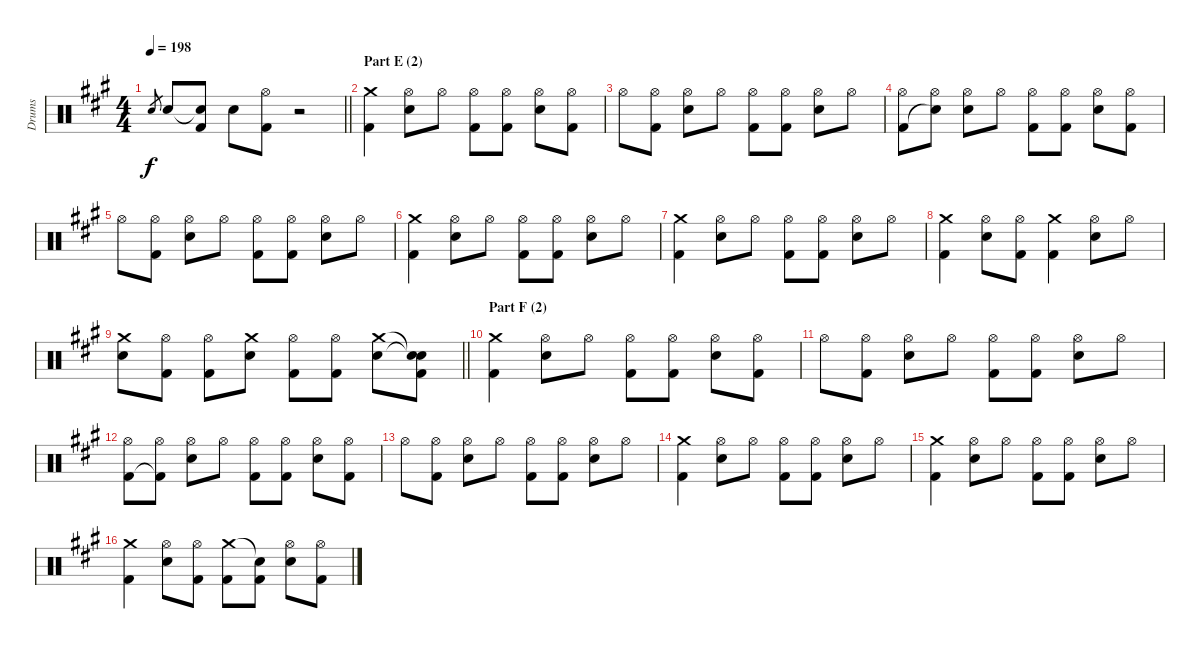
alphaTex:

\track ("Drums" "Drums") {instrument percussion}
\staff {score}
\articulation defaults
\ts (4 4)
\tempo 198
\clef neutral
\barLineRight lightlight
\ks a "Electric Snare (hit)".8{gr dy f} "Electric Snare (hit)".8
("Snare (hit)"{t} "Kick (hit) 2").8 "Electric Snare (hit)".8 ("Hi-Hat (open)" "Kick (hit) 2").8 r.2 |
\section ("" "Part E (2)")
("Crash medium (hit)" "Kick (hit) 2").4 ("Hi-Hat (open)" "Electric Snare (hit)").8 "Hi-Hat (open)".8 ("Hi-Hat (open)" "Kick (hit) 2").8 ("Hi-Hat (open)" "Kick (hit) 2").8 ("Hi-Hat (open)" "Electric Snare (hit)").8 ("Hi-Hat (open)" "Kick (hit) 2").8 |
"Hi-Hat (open)".8 ("Hi-Hat (open)" "Kick (hit) 2").8 ("Hi-Hat (open)" "Electric Snare (hit)").8 "Hi-Hat (open)".8 ("Hi-Hat (open)" "Kick (hit) 2").8 ("Hi-Hat (open)" "Kick (hit) 2").8 ("Hi-Hat (open)" "Electric Snare (hit)").8 "Hi-Hat (open)".8 |
("Hi-Hat (open)" "Kick (hit) 2").8 ("Hi-Hat (open)" "Snare (hit)"{t}).8 ("Hi-Hat (open)" "Electric Snare (hit)").8 "Hi-Hat (open)".8 ("Hi-Hat (open)" "Kick (hit) 2").8 ("Hi-Hat (open)" "Kick (hit) 2").8 ("Hi-Hat (open)" "Electric Snare (hit)").8 ("Hi-Hat (open)" "Kick (hit) 2").8 |
"Hi-Hat (open)".8 ("Hi-Hat (open)" "Kick (hit) 2").8 ("Hi-Hat (open)" "Electric Snare (hit)").8 "Hi-Hat (open)".8 ("Hi-Hat (open)" "Kick (hit) 2").8 ("Hi-Hat (open)" "Kick (hit) 2").8 ("Hi-Hat (open)" "Electric Snare (hit)").8 "Hi-Hat (open)".8 |
("Crash medium (hit)" "Kick (hit) 2").4 ("Hi-Hat (open)" "Electric Snare (hit)").8 "Hi-Hat (open)".8 ("Hi-Hat (open)" "Kick (hit) 2").8 ("Hi-Hat (open)" "Kick (hit) 2").8 ("Hi-Hat (open)" "Electric Snare (hit)").8 "Hi-Hat (open)".8 |
("Crash medium (hit)" "Kick (hit) 2").4 ("Hi-Hat (open)" "Electric Snare (hit)").8 "Hi-Hat (open)".8 ("Hi-Hat (open)" "Kick (hit) 2").8 ("Hi-Hat (open)" "Kick (hit) 2").8 ("Hi-Hat (open)" "Electric Snare (hit)").8 "Hi-Hat (open)".8 |
("Crash medium (hit)" "Kick (hit) 2").4 ("Hi-Hat (open)" "Electric Snare (hit)").8 ("Hi-Hat (open)" "Kick (hit) 2").8 ("Crash medium (hit)" "Kick (hit) 2").4 ("Hi-Hat (open)" "Electric Snare (hit)").8 "Hi-Hat (open)".8 |
\barLineRight lightlight
("Crash medium (hit)" "Electric Snare (hit)").8 ("Hi-Hat (open)" "Kick (hit) 2").8 ("Hi-Hat (open)" "Kick (hit) 2").8 ("Crash medium (hit)" "Electric Snare (hit)").8 ("Hi-Hat (open)" "Kick (hit) 2").8 ("Hi-Hat (open)" "Kick (hit) 2").8 ("Crash medium (hit)" "Electric Snare (hit)").8 ("Snare (hit)"{t} "Snare (hit)"{t} "Kick (hit) 2").8 |
\section ("" "Part F (2)")
("Crash medium (hit)" "Kick (hit) 2").4 ("Hi-Hat (open)" "Electric Snare (hit)").8 "Hi-Hat (open)".8 ("Hi-Hat (open)" "Kick (hit) 2").8 ("Hi-Hat (open)" "Kick (hit) 2").8 ("Hi-Hat (open)" "Electric Snare (hit)").8 ("Hi-Hat (open)" "Kick (hit) 2").8 |
"Hi-Hat (open)".8 ("Hi-Hat (open)" "Kick (hit) 2").8 ("Hi-Hat (open)" "Electric Snare (hit)").8 "Hi-Hat (open)".8 ("Hi-Hat (open)" "Kick (hit) 2").8 ("Hi-Hat (open)" "Kick (hit) 2").8 ("Hi-Hat (open)" "Electric Snare (hit)").8 "Hi-Hat (open)".8 |
("Hi-Hat (open)" "Kick (hit) 2").8 ("Hi-Hat (open)" "Kick (hit) 2"{t}).8 ("Hi-Hat (open)" "Electric Snare (hit)").8 "Hi-Hat (open)".8 ("Hi-Hat (open)" "Kick (hit) 2").8 ("Hi-Hat (open)" "Kick (hit) 2").8 ("Hi-Hat (open)" "Electric Snare (hit)").8 ("Hi-Hat (open)" "Kick (hit) 2").8 |
"Hi-Hat (open)".8 ("Hi-Hat (open)" "Kick (hit) 2").8 ("Hi-Hat (open)" "Electric Snare (hit)").8 "Hi-Hat (open)".8 ("Hi-Hat (open)" "Kick (hit) 2").8 ("Hi-Hat (open)" "Kick (hit) 2").8 ("Hi-Hat (open)" "Electric Snare (hit)").8 "Hi-Hat (open)".8 |
("Crash medium (hit)" "Kick (hit) 2").4 ("Hi-Hat (open)" "Electric Snare (hit)").8 "Hi-Hat (open)".8 ("Hi-Hat (open)" "Kick (hit) 2").8 ("Hi-Hat (open)" "Kick (hit) 2").8 ("Hi-Hat (open)" "Electric Snare (hit)").8 "Hi-Hat (open)".8 |
("Crash medium (hit)" "Kick (hit) 2").4 ("Hi-Hat (open)" "Electric Snare (hit)").8 "Hi-Hat (open)".8 ("Hi-Hat (open)" "Kick (hit) 2").8 ("Hi-Hat (open)" "Kick (hit) 2").8 ("Hi-Hat (open)" "Electric Snare (hit)").8 "Hi-Hat (open)".8 |
("Crash medium (hit)" "Kick (hit) 2").4 ("Hi-Hat (open)" "Electric Snare (hit)").8 ("Hi-Hat (open)" "Kick (hit) 2").8 ("Crash medium (hit)" "Kick (hit) 2").8 ("Snare (hit)"{t} "Kick (hit) 2").8 ("Hi-Hat (open)" "Electric Snare (hit)").8 ("Hi-Hat (open)" "Kick (hit) 2").8
